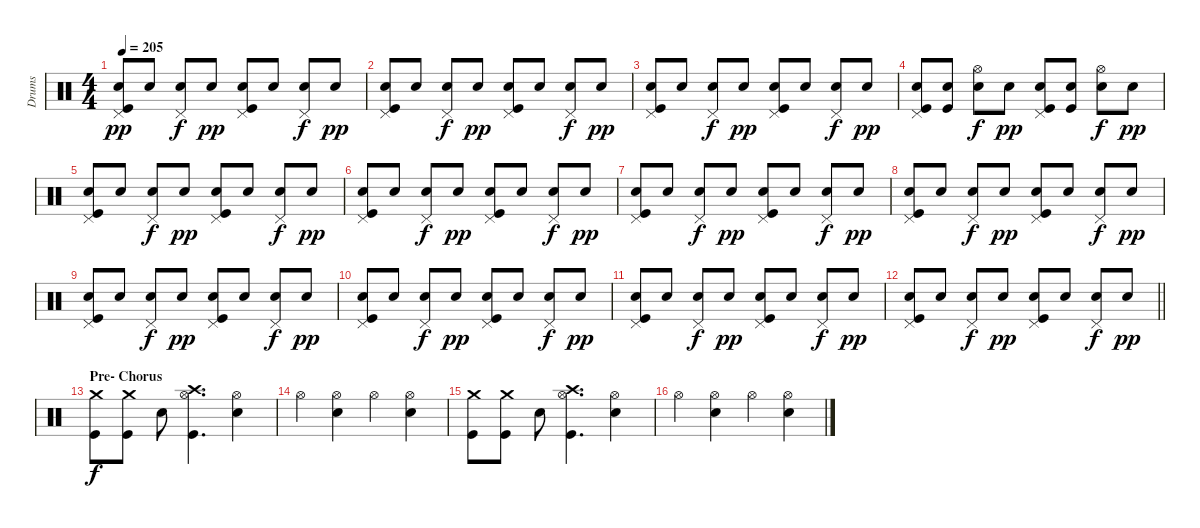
\track ("Drums" "Drums") {instrument percussion}
\staff {score}
\articulation defaults
\ts (4 4)
\tempo 205
\clef neutral
\ks c
("Pedal Hi-Hat (hit)" "Electric Snare (hit)" "Kick (hit)").8{dy pp} "Electric Snare (hit)".8 ("Pedal Hi-Hat (hit)" "Electric Snare (hit)").8{dy f} "Electric Snare (hit)".8{dy pp} ("Pedal Hi-Hat (hit)" "Electric Snare (hit)" "Kick (hit)").8 "Electric Snare (hit)".8 ("Pedal Hi-Hat (hit)" "Electric Snare (hit)").8{dy f} "Electric Snare (hit)".8{dy pp} |
("Pedal Hi-Hat (hit)" "Electric Snare (hit)" "Kick (hit)").8 "Electric Snare (hit)".8 ("Pedal Hi-Hat (hit)" "Electric Snare (hit)").8{dy f} "Electric Snare (hit)".8{dy pp} ("Pedal Hi-Hat (hit)" "Electric Snare (hit)" "Kick (hit)").8 "Electric Snare (hit)".8 ("Pedal Hi-Hat (hit)" "Electric Snare (hit)").8{dy f} "Electric Snare (hit)".8{dy pp} |
("Pedal Hi-Hat (hit)" "Electric Snare (hit)" "Kick (hit)").8 "Electric Snare (hit)".8 ("Pedal Hi-Hat (hit)" "Electric Snare (hit)").8{dy f} "Electric Snare (hit)".8{dy pp} ("Pedal Hi-Hat (hit)" "Electric Snare (hit)" "Kick (hit)").8 "Electric Snare (hit)".8 ("Pedal Hi-Hat (hit)" "Electric Snare (hit)").8{dy f} "Electric Snare (hit)".8{dy pp} |
("Pedal Hi-Hat (hit)" "Electric Snare (hit)" "Kick (hit)").8 ("Electric Snare (hit)" "Kick (hit)").8 ("Hi-Hat (open)" "Electric Snare (hit)").8{dy f} "Electric Snare (hit)".8{dy pp} ("Pedal Hi-Hat (hit)" "Electric Snare (hit)" "Kick (hit)").8 ("Electric Snare (hit)" "Kick (hit)").8 ("Hi-Hat (open)" "Electric Snare (hit)").8{dy f} "Electric Snare (hit)".8{dy pp} |
("Pedal Hi-Hat (hit)" "Electric Snare (hit)" "Kick (hit)").8 "Electric Snare (hit)".8 ("Pedal Hi-Hat (hit)" "Electric Snare (hit)").8{dy f} "Electric Snare (hit)".8{dy pp} ("Pedal Hi-Hat (hit)" "Electric Snare (hit)" "Kick (hit)").8 "Electric Snare (hit)".8 ("Pedal Hi-Hat (hit)" "Electric Snare (hit)").8{dy f} "Electric Snare (hit)".8{dy pp} |
("Pedal Hi-Hat (hit)" "Electric Snare (hit)" "Kick (hit)").8 "Electric Snare (hit)".8 ("Pedal Hi-Hat (hit)" "Electric Snare (hit)").8{dy f} "Electric Snare (hit)".8{dy pp} ("Pedal Hi-Hat (hit)" "Electric Snare (hit)" "Kick (hit)").8 "Electric Snare (hit)".8 ("Pedal Hi-Hat (hit)" "Electric Snare (hit)").8{dy f} "Electric Snare (hit)".8{dy pp} |
("Pedal Hi-Hat (hit)" "Electric Snare (hit)" "Kick (hit)").8 "Electric Snare (hit)".8 ("Pedal Hi-Hat (hit)" "Electric Snare (hit)").8{dy f} "Electric Snare (hit)".8{dy pp} ("Pedal Hi-Hat (hit)" "Electric Snare (hit)" "Kick (hit)").8 "Electric Snare (hit)".8 ("Pedal Hi-Hat (hit)" "Electric Snare (hit)").8{dy f} "Electric Snare (hit)".8{dy pp} |
("Pedal Hi-Hat (hit)" "Electric Snare (hit)" "Kick (hit)").8 "Electric Snare (hit)".8 ("Pedal Hi-Hat (hit)" "Electric Snare (hit)").8{dy f} "Electric Snare (hit)".8{dy pp} ("Pedal Hi-Hat (hit)" "Electric Snare (hit)" "Kick (hit)").8 "Electric Snare (hit)".8 ("Pedal Hi-Hat (hit)" "Electric Snare (hit)").8{dy f} "Electric Snare (hit)".8{dy pp} |
("Pedal Hi-Hat (hit)" "Electric Snare (hit)" "Kick (hit)").8 "Electric Snare (hit)".8 ("Pedal Hi-Hat (hit)" "Electric Snare (hit)").8{dy f} "Electric Snare (hit)".8{dy pp} ("Pedal Hi-Hat (hit)" "Electric Snare (hit)" "Kick (hit)").8 "Electric Snare (hit)".8 ("Pedal Hi-Hat (hit)" "Electric Snare (hit)").8{dy f} "Electric Snare (hit)".8{dy pp} |
("Pedal Hi-Hat (hit)" "Electric Snare (hit)" "Kick (hit)").8 "Electric Snare (hit)".8 ("Pedal Hi-Hat (hit)" "Electric Snare (hit)").8{dy f} "Electric Snare (hit)".8{dy pp} ("Pedal Hi-Hat (hit)" "Electric Snare (hit)" "Kick (hit)").8 "Electric Snare (hit)".8 ("Pedal Hi-Hat (hit)" "Electric Snare (hit)").8{dy f} "Electric Snare (hit)".8{dy pp} |
("Pedal Hi-Hat (hit)" "Electric Snare (hit)" "Kick (hit)").8 "Electric Snare (hit)".8 ("Pedal Hi-Hat (hit)" "Electric Snare (hit)").8{dy f} "Electric Snare (hit)".8{dy pp} ("Pedal Hi-Hat (hit)" "Electric Snare (hit)" "Kick (hit)").8 "Electric Snare (hit)".8 ("Pedal Hi-Hat (hit)" "Electric Snare (hit)").8{dy f} "Electric Snare (hit)".8{dy pp} |
\barLineRight lightlight
("Pedal Hi-Hat (hit)" "Electric Snare (hit)" "Kick (hit)").8 "Electric Snare (hit)".8 ("Pedal Hi-Hat (hit)" "Electric Snare (hit)").8{dy f} "Electric Snare (hit)".8{dy pp} ("Pedal Hi-Hat (hit)" "Electric Snare (hit)" "Kick (hit)").8 "Electric Snare (hit)".8 ("Pedal Hi-Hat (hit)" "Electric Snare (hit)").8{dy f} "Electric Snare (hit)".8{dy pp} |
\section ("" "Pre- Chorus")
("Crash medium (hit)" "Kick (hit)").8{dy f} ("Crash medium (hit)" "Kick (hit)").8 "Electric Snare (hit)".8 ("Crash high (hit)" "Hi-Hat (open)" "Kick (hit)").4{d} ("Hi-Hat (open)" "Electric Snare (hit)").4 |
"Hi-Hat (open)".4 ("Hi-Hat (open)" "Electric Snare (hit)").4 "Hi-Hat (open)".4 ("Hi-Hat (open)" "Electric Snare (hit)").4 |
("Crash medium (hit)" "Kick (hit)").8 ("Crash medium (hit)" "Kick (hit)").8 "Electric Snare (hit)".8 ("Crash high (hit)" "Hi-Hat (open)" "Kick (hit)").4{d} ("Hi-Hat (open)" "Electric Snare (hit)").4 |
"Hi-Hat (open)".4 ("Hi-Hat (open)" "Electric Snare (hit)").4 "Hi-Hat (open)".4 ("Hi-Hat (open)" "Electric Snare (hit)").4
